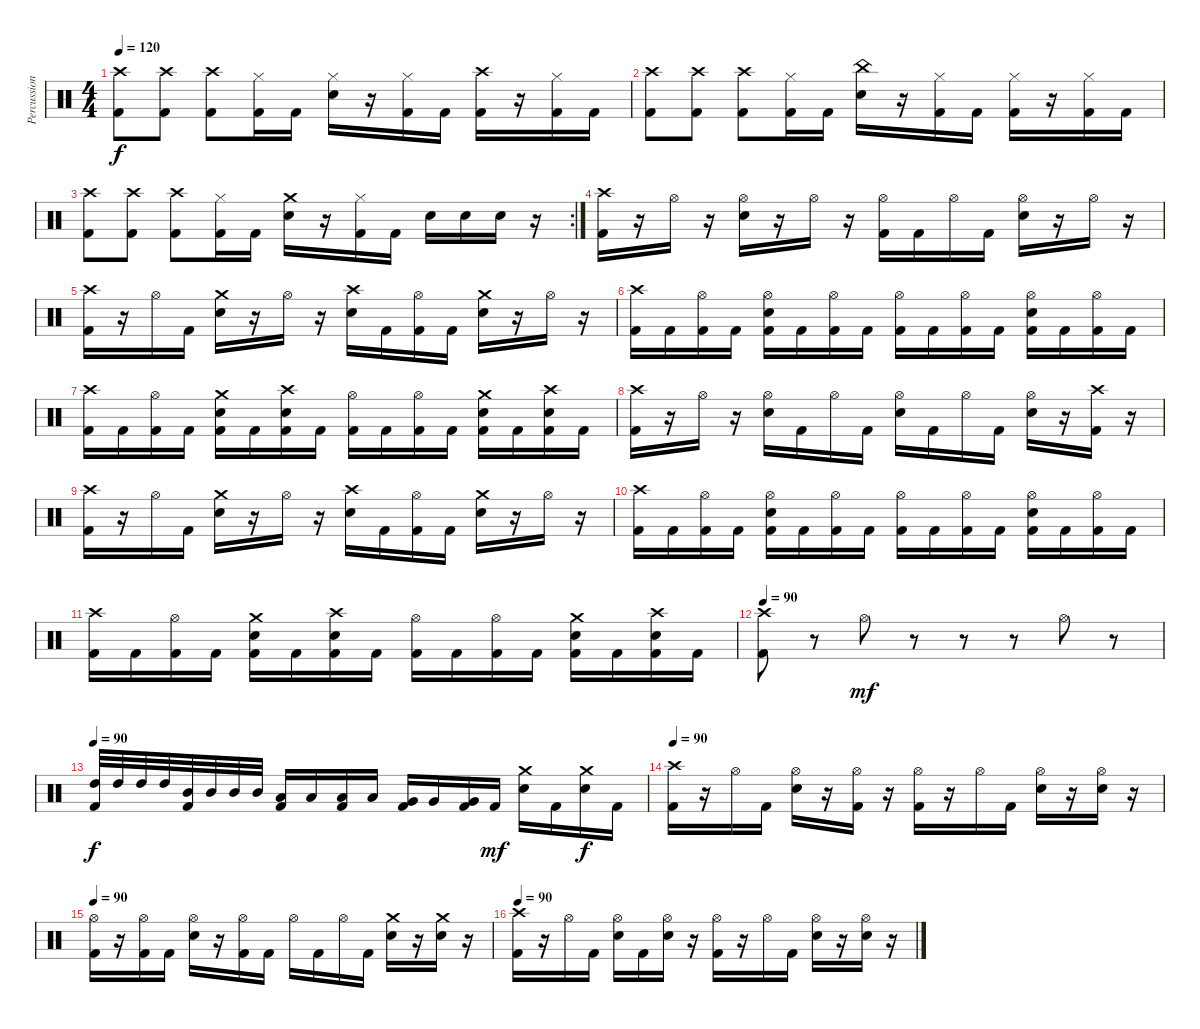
\track ("Percussion" "Percussion") {instrument percussion}
\staff {score}
\articulation defaults
\ts (4 4)
\tempo 120
\clef neutral
\ks c
("Crash high (hit)" "Kick (hit) 2").8{dy f} ("Crash high (hit)" "Kick (hit) 2").8 ("Crash high (hit)" "Kick (hit) 2").8 ("Hi-Hat (closed)" "Kick (hit) 2").16 "Kick (hit) 2".16 ("Hi-Hat (closed)" "Snare (hit) 2").16 r.16 ("Hi-Hat (closed)" "Kick (hit) 2").16 "Kick (hit) 2".16 ("Crash high (hit)" "Kick (hit) 2").16 r.16 ("Hi-Hat (closed)" "Kick (hit) 2").16 "Kick (hit) 2".16 |
("Crash high (hit)" "Kick (hit) 2").8 ("Crash high (hit)" "Kick (hit) 2").8 ("Crash high (hit)" "Kick (hit) 2").8 ("Hi-Hat (closed)" "Kick (hit) 2").16 "Kick (hit) 2".16 ("China (hit)" "Snare (hit) 2").16 r.16 ("Hi-Hat (closed)" "Kick (hit) 2").16 "Kick (hit) 2".16 ("Hi-Hat (closed)" "Kick (hit) 2").16 r.16 ("Hi-Hat (closed)" "Kick (hit) 2").16 "Kick (hit) 2".16 |
\rc 2
("Crash high (hit)" "Kick (hit) 2").8 ("Crash high (hit)" "Kick (hit) 2").8 ("Crash high (hit)" "Kick (hit) 2").8 ("Hi-Hat (closed)" "Kick (hit) 2").16 "Kick (hit) 2".16 ("Crash medium (hit)" "Snare (hit) 2").16 r.16 ("Hi-Hat (closed)" "Kick (hit) 2").16 "Kick (hit) 2".16 "Snare (hit) 2".16 "Snare (hit) 2".16 "Snare (hit) 2".16 r.16 |
("Crash high (hit)" "Kick (hit) 2").16 r.16 "Hi-Hat (open)".16 r.16 ("Hi-Hat (open)" "Snare (hit) 2").16 r.16 "Hi-Hat (open)".16 r.16 ("Hi-Hat (open)" "Kick (hit) 2").16 "Kick (hit) 2".16 "Hi-Hat (open)".16 "Kick (hit) 2".16 ("Hi-Hat (open)" "Snare (hit) 2").16 r.16 "Hi-Hat (open)".16 r.16 |
("Crash high (hit)" "Kick (hit) 2").16 r.16 "Hi-Hat (open)".16 "Kick (hit) 2".16 ("Crash medium (hit)" "Snare (hit) 2").16 r.16 "Hi-Hat (open)".16 r.16 ("Crash high (hit)" "Snare (hit) 2").16 "Kick (hit) 2".16 ("Hi-Hat (open)" "Kick (hit) 2").16 "Kick (hit) 2".16 ("Crash medium (hit)" "Snare (hit) 2").16 r.16 "Hi-Hat (open)".16 r.16 |
("Crash high (hit)" "Kick (hit) 2").16 "Kick (hit) 2".16 ("Hi-Hat (open)" "Kick (hit) 2").16 "Kick (hit) 2".16 ("Hi-Hat (open)" "Snare (hit) 2" "Kick (hit) 2").16 "Kick (hit) 2".16 ("Hi-Hat (open)" "Kick (hit) 2").16 "Kick (hit) 2".16 ("Hi-Hat (open)" "Kick (hit) 2").16 "Kick (hit) 2".16 ("Hi-Hat (open)" "Kick (hit) 2").16 "Kick (hit) 2".16 ("Hi-Hat (open)" "Snare (hit) 2" "Kick (hit) 2").16 "Kick (hit) 2".16 ("Hi-Hat (open)" "Kick (hit) 2").16 "Kick (hit) 2".16 |
("Crash high (hit)" "Kick (hit) 2").16 "Kick (hit) 2".16 ("Hi-Hat (open)" "Kick (hit) 2").16 "Kick (hit) 2".16 ("Crash medium (hit)" "Snare (hit) 2" "Kick (hit) 2").16 "Kick (hit) 2".16 ("Crash high (hit)" "Snare (hit) 2" "Kick (hit) 2").16 "Kick (hit) 2".16 ("Hi-Hat (open)" "Kick (hit) 2").16 "Kick (hit) 2".16 ("Hi-Hat (open)" "Kick (hit) 2").16 "Kick (hit) 2".16 ("Crash medium (hit)" "Snare (hit) 2" "Kick (hit) 2").16 "Kick (hit) 2".16 ("Crash high (hit)" "Snare (hit) 2" "Kick (hit) 2").16 "Kick (hit) 2".16 |
("Crash high (hit)" "Kick (hit) 2").16 r.16 "Hi-Hat (open)".16 r.16 ("Hi-Hat (open)" "Snare (hit) 2").16 "Kick (hit) 2".16 "Hi-Hat (open)".16 "Kick (hit) 2".16 ("Hi-Hat (open)" "Snare (hit) 2").16 "Kick (hit) 2".16 "Hi-Hat (open)".16 "Kick (hit) 2".16 ("Hi-Hat (open)" "Snare (hit) 2").16 r.16 ("Crash high (hit)" "Kick (hit) 2").16 r.16 |
("Crash high (hit)" "Kick (hit) 2").16 r.16 "Hi-Hat (open)".16 "Kick (hit) 2".16 ("Crash medium (hit)" "Snare (hit) 2").16 r.16 "Hi-Hat (open)".16 r.16 ("Crash high (hit)" "Snare (hit) 2").16 "Kick (hit) 2".16 ("Hi-Hat (open)" "Kick (hit) 2").16 "Kick (hit) 2".16 ("Crash medium (hit)" "Snare (hit) 2").16 r.16 "Hi-Hat (open)".16 r.16 |
("Crash high (hit)" "Kick (hit) 2").16 "Kick (hit) 2".16 ("Hi-Hat (open)" "Kick (hit) 2").16 "Kick (hit) 2".16 ("Hi-Hat (open)" "Snare (hit) 2" "Kick (hit) 2").16 "Kick (hit) 2".16 ("Hi-Hat (open)" "Kick (hit) 2").16 "Kick (hit) 2".16 ("Hi-Hat (open)" "Kick (hit) 2").16 "Kick (hit) 2".16 ("Hi-Hat (open)" "Kick (hit) 2").16 "Kick (hit) 2".16 ("Hi-Hat (open)" "Snare (hit) 2" "Kick (hit) 2").16 "Kick (hit) 2".16 ("Hi-Hat (open)" "Kick (hit) 2").16 "Kick (hit) 2".16 |
("Crash high (hit)" "Kick (hit) 2").16 "Kick (hit) 2".16 ("Hi-Hat (open)" "Kick (hit) 2").16 "Kick (hit) 2".16 ("Crash medium (hit)" "Snare (hit) 2" "Kick (hit) 2").16 "Kick (hit) 2".16 ("Crash high (hit)" "Snare (hit) 2" "Kick (hit) 2").16 "Kick (hit) 2".16 ("Hi-Hat (open)" "Kick (hit) 2").16 "Kick (hit) 2".16 ("Hi-Hat (open)" "Kick (hit) 2").16 "Kick (hit) 2".16 ("Crash medium (hit)" "Snare (hit) 2" "Kick (hit) 2").16 "Kick (hit) 2".16 ("Crash high (hit)" "Snare (hit) 2" "Kick (hit) 2").16 "Kick (hit) 2".16 |
\tempo 90
("Crash high (hit)" "Kick (hit) 2").8 r.8 "Hi-Hat (open)".8{dy mf} r.8 r.8 r.8 "Hi-Hat (open)".8 r.8 |
\tempo 90
("High Tom (hit)" "Kick (hit) 2").32{dy f} "High Tom (hit)".32 "High Tom (hit)".32 "High Tom (hit)".32 ("Mid Tom (hit)" "Kick (hit) 2").32 "Mid Tom (hit)".32 "Mid Tom (hit)".32 "Mid Tom (hit)".32 ("Low Tom (hit)" "Kick (hit) 2").16 "Low Tom (hit)".16 ("Low Tom (hit)" "Kick (hit) 2").16 "Low Tom (hit)".16 ("Very Low Tom (hit)" "Kick (hit) 2").16 "Very Low Tom (hit)".16 ("Very Low Tom (hit)" "Kick (hit) 2").16 "Kick (hit) 2".16{dy mf} ("Crash medium (hit)" "Snare (hit) 2").16 "Kick (hit) 2".16 ("Crash medium (hit)" "Snare (hit) 2").16{dy f} "Kick (hit) 2".16 |
\tempo 90
("Crash high (hit)" "Kick (hit) 2").16 r.16 "Hi-Hat (open)".16 "Kick (hit) 2".16 ("Hi-Hat (open)" "Snare (hit) 2").16 r.16 ("Hi-Hat (open)" "Kick (hit) 2").16 r.16 ("Hi-Hat (open)" "Kick (hit) 2").16 r.16 "Hi-Hat (open)".16 "Kick (hit) 2".16 ("Hi-Hat (open)" "Snare (hit) 2").16 r.16 ("Hi-Hat (open)" "Snare (hit) 2").16 r.16 |
\tempo 90
("Hi-Hat (open)" "Kick (hit) 2").16 r.16 ("Hi-Hat (open)" "Kick (hit) 2").16 "Kick (hit) 2".16 ("Hi-Hat (open)" "Snare (hit) 2").16 r.16 ("Hi-Hat (open)" "Kick (hit) 2").16 "Kick (hit) 2".16 "Hi-Hat (open)".16 "Kick (hit) 2".16 "Hi-Hat (open)".16 "Kick (hit) 2".16 ("Crash medium (hit)" "Snare (hit) 2").16 r.16 ("Crash medium (hit)" "Snare (hit) 2").16 r.16 |
\tempo 90
("Crash high (hit)" "Kick (hit) 2").16 r.16 "Hi-Hat (open)".16 "Kick (hit) 2".16 ("Hi-Hat (open)" "Snare (hit) 2").16 "Kick (hit) 2".16 ("Hi-Hat (open)" "Snare (hit) 2").16 r.16 ("Hi-Hat (open)" "Kick (hit) 2").16 r.16 "Hi-Hat (open)".16 "Kick (hit) 2".16 ("Hi-Hat (open)" "Snare (hit) 2").16 r.16 ("Hi-Hat (open)" "Snare (hit) 2").16 r.16
